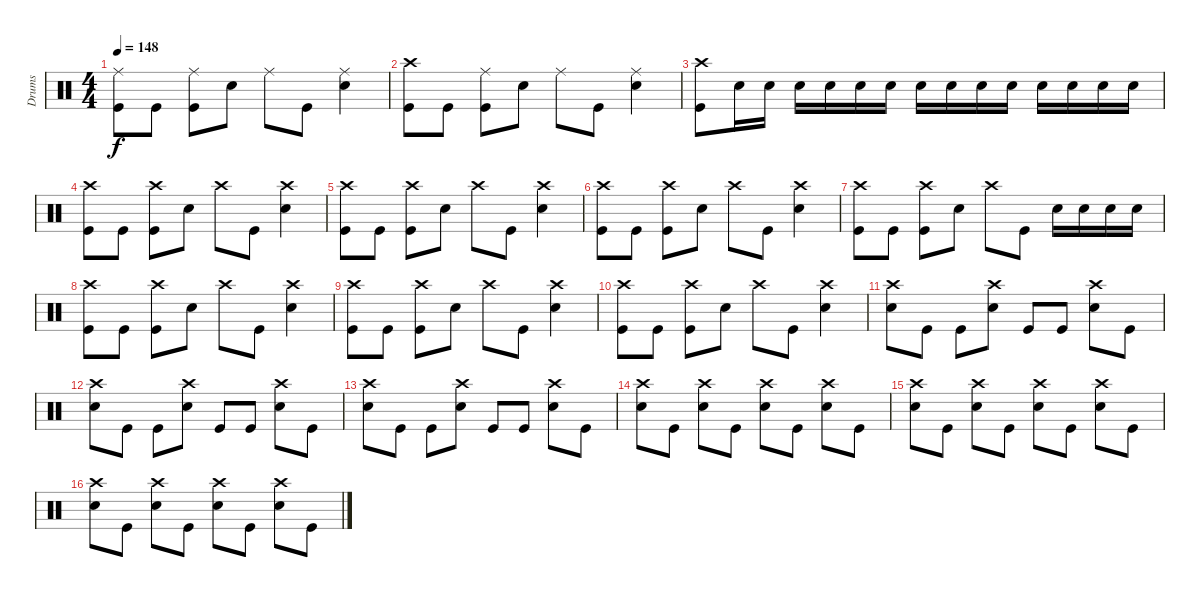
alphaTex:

\track ("Drums" "Drums") {instrument percussion}
\staff {score}
\articulation defaults
\ts (4 4)
\tempo 148
\clef neutral
\ks c
("Ride (middle)" "Kick (hit)").8{dy f} "Kick (hit)".8 ("Ride (middle)" "Kick (hit)").8 "Snare (hit) 2".8 "Ride (middle)".8 "Kick (hit)".8 ("Ride (middle)" "Snare (hit) 2").4 |
("Crash high (hit)" "Kick (hit)").8 "Kick (hit)".8 ("Ride (middle)" "Kick (hit)").8 "Snare (hit) 2".8 "Ride (middle)".8 "Kick (hit)".8 ("Ride (middle)" "Snare (hit) 2").4 |
("Crash high (hit)" "Kick (hit)").8 "Snare (hit) 2".16 "Snare (hit) 2".16 "Snare (hit) 2".16 "Snare (hit) 2".16 "Snare (hit) 2".16 "Snare (hit) 2".16 "Snare (hit) 2".16 "Snare (hit) 2".16 "Snare (hit) 2".16 "Snare (hit) 2".16 "Snare (hit) 2".16 "Snare (hit) 2".16 "Snare (hit) 2".16 "Snare (hit) 2".16 |
("Crash high (hit)" "Kick (hit)").8 "Kick (hit)".8 ("Crash high (hit)" "Kick (hit)").8 "Snare (hit) 2".8 "Crash high (hit)".8 "Kick (hit)".8 ("Crash high (hit)" "Snare (hit) 2").4 |
("Crash high (hit)" "Kick (hit)").8 "Kick (hit)".8 ("Crash high (hit)" "Kick (hit)").8 "Snare (hit) 2".8 "Crash high (hit)".8 "Kick (hit)".8 ("Crash high (hit)" "Snare (hit) 2").4 |
("Crash high (hit)" "Kick (hit)").8 "Kick (hit)".8 ("Crash high (hit)" "Kick (hit)").8 "Snare (hit) 2".8 "Crash high (hit)".8 "Kick (hit)".8 ("Crash high (hit)" "Snare (hit) 2").4 |
("Crash high (hit)" "Kick (hit)").8 "Kick (hit)".8 ("Crash high (hit)" "Kick (hit)").8 "Snare (hit) 2".8 "Crash high (hit)".8 "Kick (hit)".8 "Snare (hit) 2".16 "Snare (hit) 2".16 "Snare (hit) 2".16 "Snare (hit) 2".16 |
("Crash high (hit)" "Kick (hit)").8 "Kick (hit)".8 ("Crash high (hit)" "Kick (hit)").8 "Snare (hit) 2".8 "Crash high (hit)".8 "Kick (hit)".8 ("Crash high (hit)" "Snare (hit) 2").4 |
("Crash high (hit)" "Kick (hit)").8 "Kick (hit)".8 ("Crash high (hit)" "Kick (hit)").8 "Snare (hit) 2".8 "Crash high (hit)".8 "Kick (hit)".8 ("Crash high (hit)" "Snare (hit) 2").4 |
("Crash high (hit)" "Kick (hit)").8 "Kick (hit)".8 ("Crash high (hit)" "Kick (hit)").8 "Snare (hit) 2".8 "Crash high (hit)".8 "Kick (hit)".8 ("Crash high (hit)" "Snare (hit) 2").4 |
("Crash high (hit)" "Snare (hit) 2").8 "Kick (hit)".8 "Kick (hit)".8 ("Crash high (hit)" "Snare (hit) 2").8 "Kick (hit)".8 "Kick (hit)".8 ("Crash high (hit)" "Snare (hit) 2").8 "Kick (hit)".8 |
("Crash high (hit)" "Snare (hit) 2").8 "Kick (hit)".8 "Kick (hit)".8 ("Crash high (hit)" "Snare (hit) 2").8 "Kick (hit)".8 "Kick (hit)".8 ("Crash high (hit)" "Snare (hit) 2").8 "Kick (hit)".8 |
("Crash high (hit)" "Snare (hit) 2").8 "Kick (hit)".8 "Kick (hit)".8 ("Crash high (hit)" "Snare (hit) 2").8 "Kick (hit)".8 "Kick (hit)".8 ("Crash high (hit)" "Snare (hit) 2").8 "Kick (hit)".8 |
("Crash high (hit)" "Snare (hit) 2").8 "Kick (hit)".8 ("Crash high (hit)" "Snare (hit) 2").8 "Kick (hit)".8 ("Crash high (hit)" "Snare (hit) 2").8 "Kick (hit)".8 ("Crash high (hit)" "Snare (hit) 2").8 "Kick (hit)".8 |
("Crash high (hit)" "Snare (hit) 2").8 "Kick (hit)".8 ("Crash high (hit)" "Snare (hit) 2").8 "Kick (hit)".8 ("Crash high (hit)" "Snare (hit) 2").8 "Kick (hit)".8 ("Crash high (hit)" "Snare (hit) 2").8 "Kick (hit)".8 |
("Crash high (hit)" "Snare (hit) 2").8 "Kick (hit)".8 ("Crash high (hit)" "Snare (hit) 2").8 "Kick (hit)".8 ("Crash high (hit)" "Snare (hit) 2").8 "Kick (hit)".8 ("Crash high (hit)" "Snare (hit) 2").8 "Kick (hit)".8
